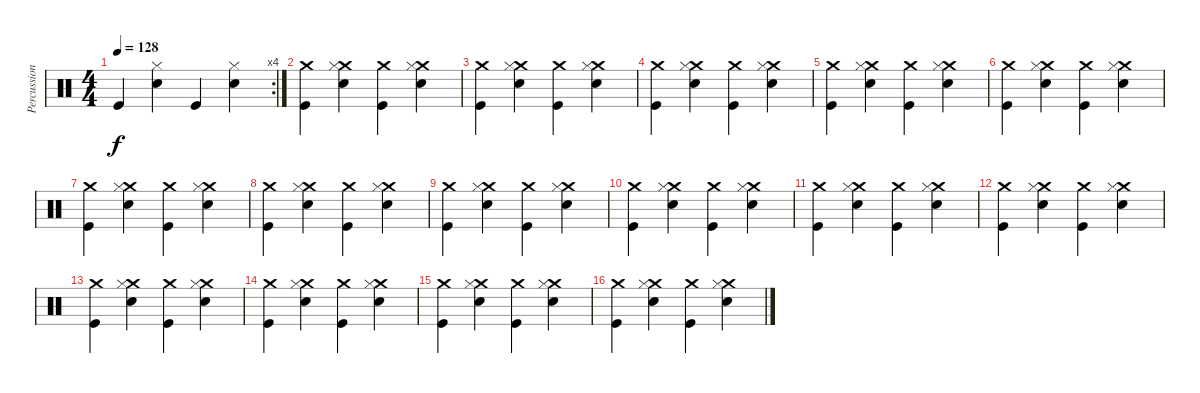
\track ("Percussion" "Percussion") {instrument percussion}
\staff {score}
\articulation defaults
\rc 4
\ts (4 4)
\tempo 128
\clef neutral
\ks c "Kick (hit)".4{dy f}
("Snare (hit) 2" "Hi-Hat (closed)").4 "Kick (hit)".4 ("Snare (hit) 2" "Hi-Hat (closed)").4 |
("Crash medium (hit)" "Kick (hit)").4 ("Crash medium (hit)" "Snare (hit) 2" "Hi-Hat (closed)").4 ("Crash medium (hit)" "Kick (hit)").4 ("Crash medium (hit)" "Snare (hit) 2" "Hi-Hat (closed)").4 |
("Crash medium (hit)" "Kick (hit)").4 ("Crash medium (hit)" "Snare (hit) 2" "Hi-Hat (closed)").4 ("Crash medium (hit)" "Kick (hit)").4 ("Crash medium (hit)" "Snare (hit) 2" "Hi-Hat (closed)").4 |
("Crash medium (hit)" "Kick (hit)").4 ("Crash medium (hit)" "Snare (hit) 2" "Hi-Hat (closed)").4 ("Crash medium (hit)" "Kick (hit)").4 ("Crash medium (hit)" "Snare (hit) 2" "Hi-Hat (closed)").4 |
("Crash medium (hit)" "Kick (hit)").4 ("Crash medium (hit)" "Snare (hit) 2" "Hi-Hat (closed)").4 ("Crash medium (hit)" "Kick (hit)").4 ("Crash medium (hit)" "Snare (hit) 2" "Hi-Hat (closed)").4 |
("Crash medium (hit)" "Kick (hit)").4 ("Crash medium (hit)" "Snare (hit) 2" "Hi-Hat (closed)").4 ("Crash medium (hit)" "Kick (hit)").4 ("Crash medium (hit)" "Snare (hit) 2" "Hi-Hat (closed)").4 |
("Crash medium (hit)" "Kick (hit)").4 ("Crash medium (hit)" "Snare (hit) 2" "Hi-Hat (closed)").4 ("Crash medium (hit)" "Kick (hit)").4 ("Crash medium (hit)" "Snare (hit) 2" "Hi-Hat (closed)").4 |
("Crash medium (hit)" "Kick (hit)").4 ("Crash medium (hit)" "Snare (hit) 2" "Hi-Hat (closed)").4 ("Crash medium (hit)" "Kick (hit)").4 ("Crash medium (hit)" "Snare (hit) 2" "Hi-Hat (closed)").4 |
("Crash medium (hit)" "Kick (hit)").4 ("Crash medium (hit)" "Snare (hit) 2" "Hi-Hat (closed)").4 ("Crash medium (hit)" "Kick (hit)").4 ("Crash medium (hit)" "Snare (hit) 2" "Hi-Hat (closed)").4 |
("Crash medium (hit)" "Kick (hit)").4 ("Crash medium (hit)" "Snare (hit) 2" "Hi-Hat (closed)").4 ("Crash medium (hit)" "Kick (hit)").4 ("Crash medium (hit)" "Snare (hit) 2" "Hi-Hat (closed)").4 |
("Crash medium (hit)" "Kick (hit)").4 ("Crash medium (hit)" "Snare (hit) 2" "Hi-Hat (closed)").4 ("Crash medium (hit)" "Kick (hit)").4 ("Crash medium (hit)" "Snare (hit) 2" "Hi-Hat (closed)").4 |
("Crash medium (hit)" "Kick (hit)").4 ("Crash medium (hit)" "Snare (hit) 2" "Hi-Hat (closed)").4 ("Crash medium (hit)" "Kick (hit)").4 ("Crash medium (hit)" "Snare (hit) 2" "Hi-Hat (closed)").4 |
("Crash medium (hit)" "Kick (hit)").4 ("Crash medium (hit)" "Snare (hit) 2" "Hi-Hat (closed)").4 ("Crash medium (hit)" "Kick (hit)").4 ("Crash medium (hit)" "Snare (hit) 2" "Hi-Hat (closed)").4 |
("Crash medium (hit)" "Kick (hit)").4 ("Crash medium (hit)" "Snare (hit) 2" "Hi-Hat (closed)").4 ("Crash medium (hit)" "Kick (hit)").4 ("Crash medium (hit)" "Snare (hit) 2" "Hi-Hat (closed)").4 |
("Crash medium (hit)" "Kick (hit)").4 ("Crash medium (hit)" "Snare (hit) 2" "Hi-Hat (closed)").4 ("Crash medium (hit)" "Kick (hit)").4 ("Crash medium (hit)" "Snare (hit) 2" "Hi-Hat (closed)").4 |
("Crash medium (hit)" "Kick (hit)").4 ("Crash medium (hit)" "Snare (hit) 2" "Hi-Hat (closed)").4 ("Crash medium (hit)" "Kick (hit)").4 ("Crash medium (hit)" "Snare (hit) 2" "Hi-Hat (closed)").4
